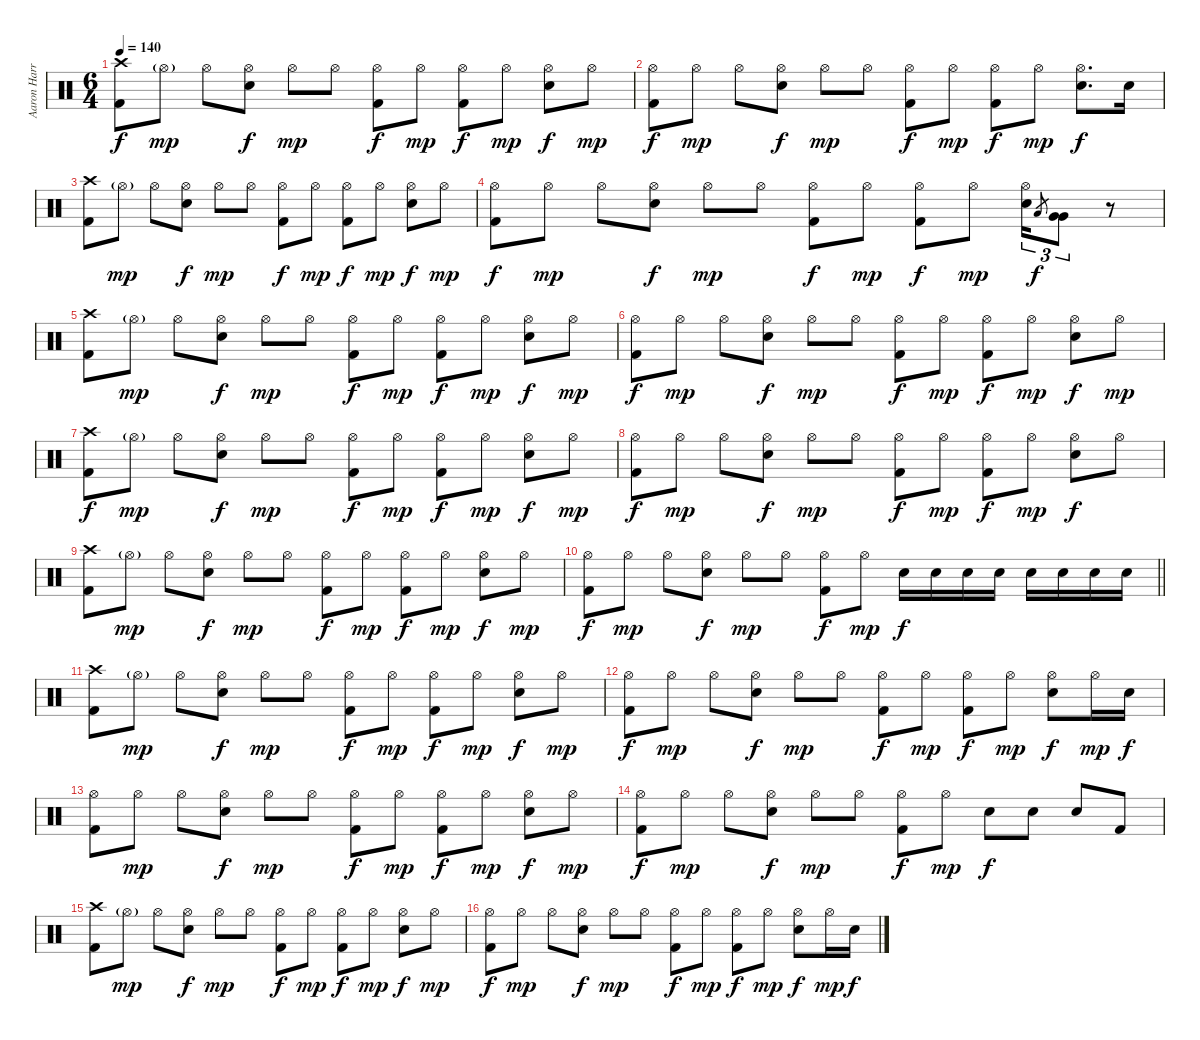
\track ("Aaron Harris" "Aaron Harr") {instrument percussion}
\staff {score}
\articulation defaults
\ts (6 4)
\tempo 140
\clef neutral
\ks c
("Crash high (hit)" "Kick (hit) 2").8{dy f} "Hi-Hat (open)"{g}.8{dy mp} "Hi-Hat (open)".8 ("Hi-Hat (open)" "Electric Snare (hit)").8{dy f} "Hi-Hat (open)".8{dy mp} "Hi-Hat (open)".8 ("Hi-Hat (open)" "Kick (hit) 2").8{dy f} "Hi-Hat (open)".8{dy mp} ("Hi-Hat (open)" "Kick (hit) 2").8{dy f} "Hi-Hat (open)".8{dy mp} ("Hi-Hat (open)" "Electric Snare (hit)").8{dy f} "Hi-Hat (open)".8{dy mp} |
("Hi-Hat (open)" "Kick (hit) 2").8{dy f} "Hi-Hat (open)".8{dy mp} "Hi-Hat (open)".8 ("Hi-Hat (open)" "Electric Snare (hit)").8{dy f} "Hi-Hat (open)".8{dy mp} "Hi-Hat (open)".8 ("Hi-Hat (open)" "Kick (hit) 2").8{dy f} "Hi-Hat (open)".8{dy mp} ("Hi-Hat (open)" "Kick (hit) 2").8{dy f} "Hi-Hat (open)".8{dy mp} ("Hi-Hat (open)" "Electric Snare (hit)").8{d dy f} "Electric Snare (hit)".16 |
("Crash high (hit)" "Kick (hit) 2").8 "Hi-Hat (open)"{g}.8{dy mp} "Hi-Hat (open)".8 ("Hi-Hat (open)" "Electric Snare (hit)").8{dy f} "Hi-Hat (open)".8{dy mp} "Hi-Hat (open)".8 ("Hi-Hat (open)" "Kick (hit) 2").8{dy f} "Hi-Hat (open)".8{dy mp} ("Hi-Hat (open)" "Kick (hit) 2").8{dy f} "Hi-Hat (open)".8{dy mp} ("Hi-Hat (open)" "Electric Snare (hit)").8{dy f} "Hi-Hat (open)".8{dy mp} |
("Hi-Hat (open)" "Kick (hit) 2").8{dy f} "Hi-Hat (open)".8{dy mp} "Hi-Hat (open)".8 ("Hi-Hat (open)" "Electric Snare (hit)").8{dy f} "Hi-Hat (open)".8{dy mp} "Hi-Hat (open)".8 ("Hi-Hat (open)" "Kick (hit) 2").8{dy f} "Hi-Hat (open)".8{dy mp} ("Hi-Hat (open)" "Kick (hit) 2").8{dy f} "Hi-Hat (open)".8{dy mp} ("Hi-Hat (open)" "Electric Snare (hit)").16{tu (3 2)} "Low Tom (hit)".8{gr dy f} ("Very Low Tom (hit)" "Very Low Tom (hit)").8{tu (3 2)} r.8 |
("Crash high (hit)" "Kick (hit) 2").8 "Hi-Hat (open)"{g}.8{dy mp} "Hi-Hat (open)".8 ("Hi-Hat (open)" "Electric Snare (hit)").8{dy f} "Hi-Hat (open)".8{dy mp} "Hi-Hat (open)".8 ("Hi-Hat (open)" "Kick (hit) 2").8{dy f} "Hi-Hat (open)".8{dy mp} ("Hi-Hat (open)" "Kick (hit) 2").8{dy f} "Hi-Hat (open)".8{dy mp} ("Hi-Hat (open)" "Electric Snare (hit)").8{dy f} "Hi-Hat (open)".8{dy mp} |
("Hi-Hat (open)" "Kick (hit) 2").8{dy f} "Hi-Hat (open)".8{dy mp} "Hi-Hat (open)".8 ("Hi-Hat (open)" "Electric Snare (hit)").8{dy f} "Hi-Hat (open)".8{dy mp} "Hi-Hat (open)".8 ("Hi-Hat (open)" "Kick (hit) 2").8{dy f} "Hi-Hat (open)".8{dy mp} ("Hi-Hat (open)" "Kick (hit) 2").8{dy f} "Hi-Hat (open)".8{dy mp} ("Hi-Hat (open)" "Electric Snare (hit)").8{dy f} "Hi-Hat (open)".8{dy mp} |
("Crash high (hit)" "Kick (hit) 2").8{dy f} "Hi-Hat (open)"{g}.8{dy mp} "Hi-Hat (open)".8 ("Hi-Hat (open)" "Electric Snare (hit)").8{dy f} "Hi-Hat (open)".8{dy mp} "Hi-Hat (open)".8 ("Hi-Hat (open)" "Kick (hit) 2").8{dy f} "Hi-Hat (open)".8{dy mp} ("Hi-Hat (open)" "Kick (hit) 2").8{dy f} "Hi-Hat (open)".8{dy mp} ("Hi-Hat (open)" "Electric Snare (hit)").8{dy f} "Hi-Hat (open)".8{dy mp} |
("Hi-Hat (open)" "Kick (hit) 2").8{dy f} "Hi-Hat (open)".8{dy mp} "Hi-Hat (open)".8 ("Hi-Hat (open)" "Electric Snare (hit)").8{dy f} "Hi-Hat (open)".8{dy mp} "Hi-Hat (open)".8 ("Hi-Hat (open)" "Kick (hit) 2").8{dy f} "Hi-Hat (open)".8{dy mp} ("Hi-Hat (open)" "Kick (hit) 2").8{dy f} "Hi-Hat (open)".8{dy mp} ("Hi-Hat (open)" "Electric Snare (hit)").8{dy f} "Hi-Hat (open)".8 |
("Crash high (hit)" "Kick (hit) 2").8 "Hi-Hat (open)"{g}.8{dy mp} "Hi-Hat (open)".8 ("Hi-Hat (open)" "Electric Snare (hit)").8{dy f} "Hi-Hat (open)".8{dy mp} "Hi-Hat (open)".8 ("Hi-Hat (open)" "Kick (hit) 2").8{dy f} "Hi-Hat (open)".8{dy mp} ("Hi-Hat (open)" "Kick (hit) 2").8{dy f} "Hi-Hat (open)".8{dy mp} ("Hi-Hat (open)" "Electric Snare (hit)").8{dy f} "Hi-Hat (open)".8{dy mp} |
\barLineRight lightlight
("Hi-Hat (open)" "Kick (hit) 2").8{dy f} "Hi-Hat (open)".8{dy mp} "Hi-Hat (open)".8 ("Hi-Hat (open)" "Electric Snare (hit)").8{dy f} "Hi-Hat (open)".8{dy mp} "Hi-Hat (open)".8 ("Hi-Hat (open)" "Kick (hit) 2").8{dy f} "Hi-Hat (open)".8{dy mp} "Electric Snare (hit)".16{dy f} "Electric Snare (hit)".16 "Electric Snare (hit)".16 "Electric Snare (hit)".16 "Electric Snare (hit)".16 "Electric Snare (hit)".16 "Electric Snare (hit)".16 "Electric Snare (hit)".16 |
\section ("" "")
("Crash high (hit)" "Kick (hit) 2").8 "Hi-Hat (open)"{g}.8{dy mp} "Hi-Hat (open)".8 ("Hi-Hat (open)" "Electric Snare (hit)").8{dy f} "Hi-Hat (open)".8{dy mp} "Hi-Hat (open)".8 ("Hi-Hat (open)" "Kick (hit) 2").8{dy f} "Hi-Hat (open)".8{dy mp} ("Hi-Hat (open)" "Kick (hit) 2").8{dy f} "Hi-Hat (open)".8{dy mp} ("Hi-Hat (open)" "Electric Snare (hit)").8{dy f} "Hi-Hat (open)".8{dy mp} |
("Hi-Hat (open)" "Kick (hit) 2").8{dy f} "Hi-Hat (open)".8{dy mp} "Hi-Hat (open)".8 ("Hi-Hat (open)" "Electric Snare (hit)").8{dy f} "Hi-Hat (open)".8{dy mp} "Hi-Hat (open)".8 ("Hi-Hat (open)" "Kick (hit) 2").8{dy f} "Hi-Hat (open)".8{dy mp} ("Hi-Hat (open)" "Kick (hit) 2").8{dy f} "Hi-Hat (open)".8{dy mp} ("Hi-Hat (open)" "Electric Snare (hit)").8{dy f} "Hi-Hat (open)".16{dy mp} "Electric Snare (hit)".16{dy f} |
("Hi-Hat (open)" "Kick (hit) 2").8 "Hi-Hat (open)".8{dy mp} "Hi-Hat (open)".8 ("Hi-Hat (open)" "Electric Snare (hit)").8{dy f} "Hi-Hat (open)".8{dy mp} "Hi-Hat (open)".8 ("Hi-Hat (open)" "Kick (hit) 2").8{dy f} "Hi-Hat (open)".8{dy mp} ("Hi-Hat (open)" "Kick (hit) 2").8{dy f} "Hi-Hat (open)".8{dy mp} ("Hi-Hat (open)" "Electric Snare (hit)").8{dy f} "Hi-Hat (open)".8{dy mp} |
("Hi-Hat (open)" "Kick (hit) 2").8{dy f} "Hi-Hat (open)".8{dy mp} "Hi-Hat (open)".8 ("Hi-Hat (open)" "Electric Snare (hit)").8{dy f} "Hi-Hat (open)".8{dy mp} "Hi-Hat (open)".8 ("Hi-Hat (open)" "Kick (hit) 2").8{dy f} "Hi-Hat (open)".8{dy mp} "Electric Snare (hit)".8{dy f} "Electric Snare (hit)".8 "Electric Snare (hit)".8 "Kick (hit) 2".8 |
("Crash high (hit)" "Kick (hit) 2").8 "Hi-Hat (open)"{g}.8{dy mp} "Hi-Hat (open)".8 ("Hi-Hat (open)" "Electric Snare (hit)").8{dy f} "Hi-Hat (open)".8{dy mp} "Hi-Hat (open)".8 ("Hi-Hat (open)" "Kick (hit) 2").8{dy f} "Hi-Hat (open)".8{dy mp} ("Hi-Hat (open)" "Kick (hit) 2").8{dy f} "Hi-Hat (open)".8{dy mp} ("Hi-Hat (open)" "Electric Snare (hit)").8{dy f} "Hi-Hat (open)".8{dy mp} |
("Hi-Hat (open)" "Kick (hit) 2").8{dy f} "Hi-Hat (open)".8{dy mp} "Hi-Hat (open)".8 ("Hi-Hat (open)" "Electric Snare (hit)").8{dy f} "Hi-Hat (open)".8{dy mp} "Hi-Hat (open)".8 ("Hi-Hat (open)" "Kick (hit) 2").8{dy f} "Hi-Hat (open)".8{dy mp} ("Hi-Hat (open)" "Kick (hit) 2").8{dy f} "Hi-Hat (open)".8{dy mp} ("Hi-Hat (open)" "Electric Snare (hit)").8{dy f} "Hi-Hat (open)".16{dy mp} "Electric Snare (hit)".16{dy f}
